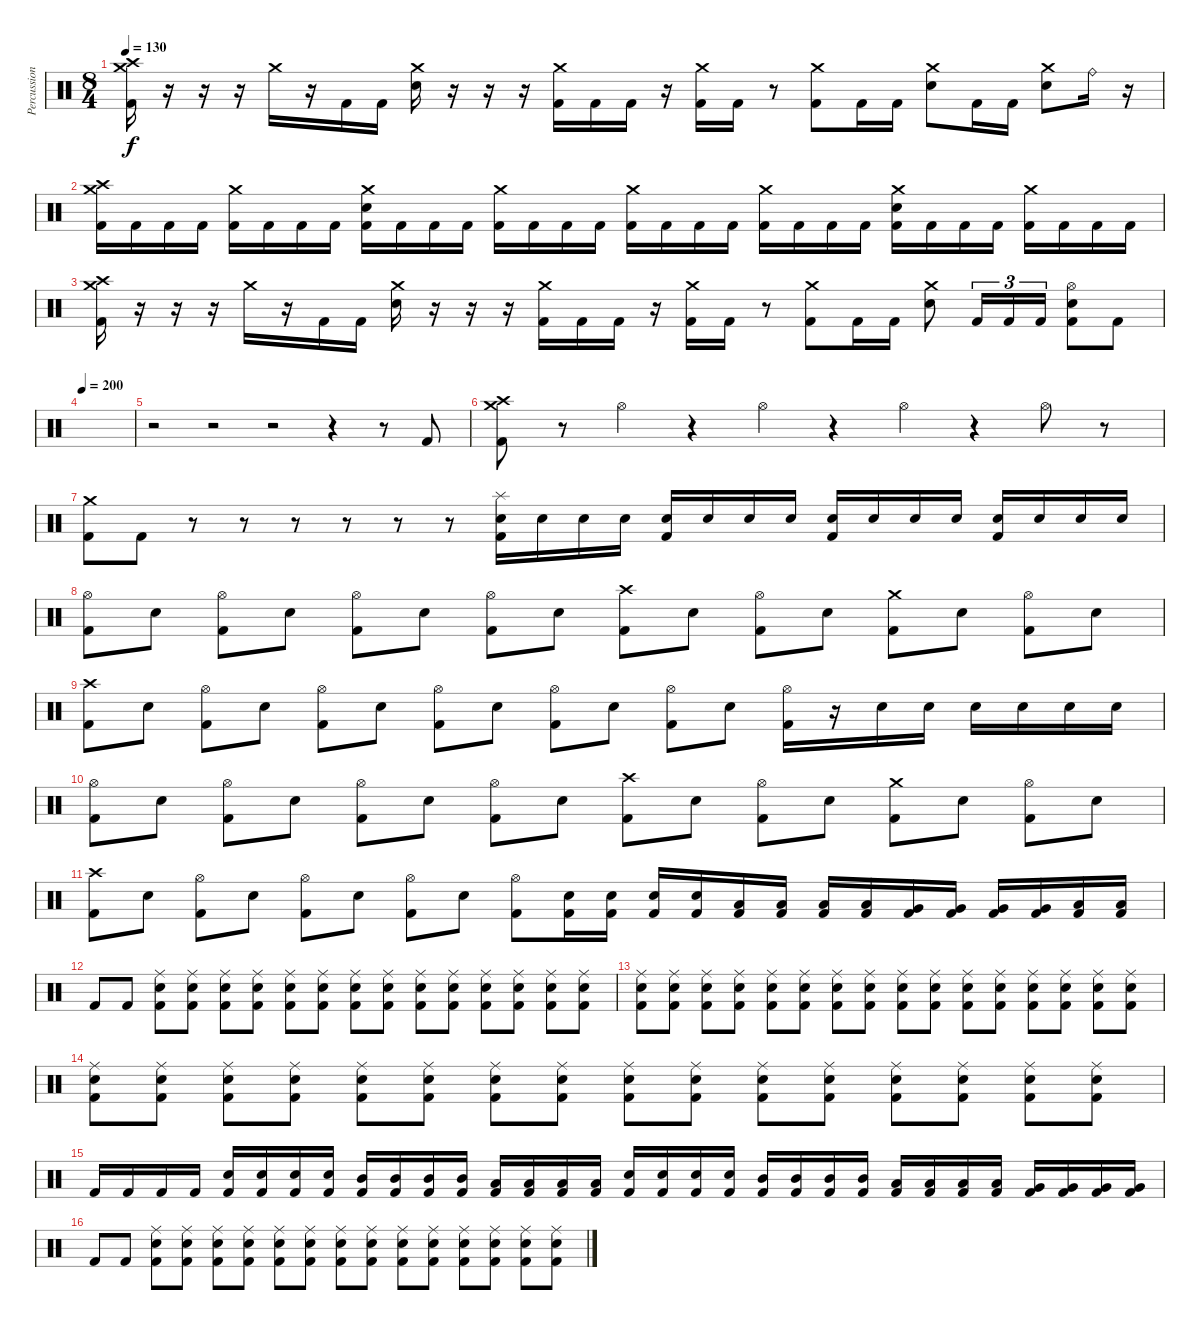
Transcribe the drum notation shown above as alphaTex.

\track ("Percussion" "Percussion") {instrument percussion}
\staff {score}
\articulation defaults
\ts (8 4)
\tempo 130
\clef neutral
\ks c
("Crash medium (hit)" "Crash high (hit)" "Kick (hit) 2").16{dy f} r.16 r.16 r.16 "Crash medium (hit)".16 r.16 "Kick (hit) 2".16 "Kick (hit) 2".16 ("Crash medium (hit)" "Electric Snare (hit)").16 r.16 r.16 r.16 ("Crash medium (hit)" "Kick (hit) 2").16 "Kick (hit) 2".16 "Kick (hit) 2".16 r.16 ("Crash medium (hit)" "Kick (hit) 2").16 "Kick (hit) 2".16 r.8 ("Crash medium (hit)" "Kick (hit) 2").8 "Kick (hit) 2".16 "Kick (hit) 2".16 ("Crash medium (hit)" "Electric Snare (hit)").8 "Kick (hit) 2".16 "Kick (hit) 2".16 ("Crash medium (hit)" "Electric Snare (hit)").8 "Ride (bell)".16 r.16 |
("Crash medium (hit)" "Crash high (hit)" "Kick (hit) 2").16 "Kick (hit) 2".16 "Kick (hit) 2".16 "Kick (hit) 2".16 ("Crash medium (hit)" "Kick (hit) 2").16 "Kick (hit) 2".16 "Kick (hit) 2".16 "Kick (hit) 2".16 ("Crash medium (hit)" "Electric Snare (hit)" "Kick (hit) 2").16 "Kick (hit) 2".16 "Kick (hit) 2".16 "Kick (hit) 2".16 ("Crash medium (hit)" "Kick (hit) 2").16 "Kick (hit) 2".16 "Kick (hit) 2".16 "Kick (hit) 2".16 ("Crash medium (hit)" "Kick (hit) 2").16 "Kick (hit) 2".16 "Kick (hit) 2".16 "Kick (hit) 2".16 ("Crash medium (hit)" "Kick (hit) 2").16 "Kick (hit) 2".16 "Kick (hit) 2".16 "Kick (hit) 2".16 ("Crash medium (hit)" "Electric Snare (hit)" "Kick (hit) 2").16 "Kick (hit) 2".16 "Kick (hit) 2".16 "Kick (hit) 2".16 ("Crash medium (hit)" "Kick (hit) 2").16 "Kick (hit) 2".16 "Kick (hit) 2".16 "Kick (hit) 2".16 |
("Crash medium (hit)" "Crash high (hit)" "Kick (hit) 2").16 r.16 r.16 r.16 "Crash medium (hit)".16 r.16 "Kick (hit) 2".16 "Kick (hit) 2".16 ("Crash medium (hit)" "Electric Snare (hit)").16 r.16 r.16 r.16 ("Crash medium (hit)" "Kick (hit) 2").16 "Kick (hit) 2".16 "Kick (hit) 2".16 r.16 ("Crash medium (hit)" "Kick (hit) 2").16 "Kick (hit) 2".16 r.8 ("Crash medium (hit)" "Kick (hit) 2").8 "Kick (hit) 2".16 "Kick (hit) 2".16 ("Crash medium (hit)" "Electric Snare (hit)").8 "Kick (hit) 2".16{tu (3 2)} "Kick (hit) 2".16{tu (3 2)} "Kick (hit) 2".16{tu (3 2)} ("Hi-Hat (open)" "Electric Snare (hit)" "Kick (hit) 2").8 "Kick (hit) 2".8 |
\tempo 200
|
r.2 r.2 r.2 r.4 r.8 "Kick (hit) 2".8 |
("Crash medium (hit)" "Crash high (hit)" "Kick (hit) 2").8 r.8 "Hi-Hat (open)".4 r.4 "Hi-Hat (open)".4 r.4 "Hi-Hat (open)".4 r.4 "Hi-Hat (open)".8 r.8 |
("Crash medium (hit)" "Kick (hit) 2").8 "Kick (hit) 2".8 r.8 r.8 r.8 r.8 r.8 r.8 ("Splash (hit)" "Electric Snare (hit)" "Kick (hit) 2").16 "Electric Snare (hit)".16 "Electric Snare (hit)".16 "Electric Snare (hit)".16 ("Electric Snare (hit)" "Kick (hit) 2").16 "Electric Snare (hit)".16 "Electric Snare (hit)".16 "Electric Snare (hit)".16 ("Electric Snare (hit)" "Kick (hit) 2").16 "Electric Snare (hit)".16 "Electric Snare (hit)".16 "Electric Snare (hit)".16 ("Electric Snare (hit)" "Kick (hit) 2").16 "Electric Snare (hit)".16 "Electric Snare (hit)".16 "Electric Snare (hit)".16 |
("Hi-Hat (open)" "Kick (hit) 2").8 "Electric Snare (hit)".8 ("Hi-Hat (open)" "Kick (hit) 2").8 "Electric Snare (hit)".8 ("Hi-Hat (open)" "Kick (hit) 2").8 "Electric Snare (hit)".8 ("Hi-Hat (open)" "Kick (hit) 2").8 "Electric Snare (hit)".8 ("Crash high (hit)" "Kick (hit) 2").8 "Electric Snare (hit)".8 ("Hi-Hat (open)" "Kick (hit) 2").8 "Electric Snare (hit)".8 ("Crash medium (hit)" "Kick (hit) 2").8 "Electric Snare (hit)".8 ("Hi-Hat (open)" "Kick (hit) 2").8 "Electric Snare (hit)".8 |
("Crash high (hit)" "Kick (hit) 2").8 "Electric Snare (hit)".8 ("Hi-Hat (open)" "Kick (hit) 2").8 "Electric Snare (hit)".8 ("Hi-Hat (open)" "Kick (hit) 2").8 "Electric Snare (hit)".8 ("Hi-Hat (open)" "Kick (hit) 2").8 "Electric Snare (hit)".8 ("Hi-Hat (open)" "Kick (hit) 2").8 "Electric Snare (hit)".8 ("Hi-Hat (open)" "Kick (hit) 2").8 "Electric Snare (hit)".8 ("Hi-Hat (open)" "Kick (hit) 2").16 r.16 "Electric Snare (hit)".16 "Electric Snare (hit)".16 "Electric Snare (hit)".16 "Electric Snare (hit)".16 "Electric Snare (hit)".16 "Electric Snare (hit)".16 |
("Hi-Hat (open)" "Kick (hit) 2").8 "Electric Snare (hit)".8 ("Hi-Hat (open)" "Kick (hit) 2").8 "Electric Snare (hit)".8 ("Hi-Hat (open)" "Kick (hit) 2").8 "Electric Snare (hit)".8 ("Hi-Hat (open)" "Kick (hit) 2").8 "Electric Snare (hit)".8 ("Crash high (hit)" "Kick (hit) 2").8 "Electric Snare (hit)".8 ("Hi-Hat (open)" "Kick (hit) 2").8 "Electric Snare (hit)".8 ("Crash medium (hit)" "Kick (hit) 2").8 "Electric Snare (hit)".8 ("Hi-Hat (open)" "Kick (hit) 2").8 "Electric Snare (hit)".8 |
("Crash high (hit)" "Kick (hit) 2").8 "Electric Snare (hit)".8 ("Hi-Hat (open)" "Kick (hit) 2").8 "Electric Snare (hit)".8 ("Hi-Hat (open)" "Kick (hit) 2").8 "Electric Snare (hit)".8 ("Hi-Hat (open)" "Kick (hit) 2").8 "Electric Snare (hit)".8 ("Hi-Hat (open)" "Kick (hit) 2").8 ("Electric Snare (hit)" "Kick (hit) 2").16 ("Electric Snare (hit)" "Kick (hit) 2").16 ("Electric Snare (hit)" "Kick (hit) 2").16 ("Electric Snare (hit)" "Kick (hit) 2").16 ("Low Tom (hit)" "Kick (hit) 2").16 ("Low Tom (hit)" "Kick (hit) 2").16 ("Low Tom (hit)" "Kick (hit) 2").16 ("Low Tom (hit)" "Kick (hit) 2").16 ("Very Low Tom (hit)" "Kick (hit) 2").16 ("Very Low Tom (hit)" "Kick (hit) 2").16 ("Very Low Tom (hit)" "Kick (hit) 2").16 ("Very Low Tom (hit)" "Kick (hit) 2").16 ("Low Floor Tom (hit)" "Kick (hit) 2").16 ("Low Floor Tom (hit)" "Kick (hit) 2").16 |
"Kick (hit) 2".8 "Kick (hit) 2".8 ("Ride (middle)" "Electric Snare (hit)" "Kick (hit) 2").8 ("Ride (middle)" "Electric Snare (hit)" "Kick (hit) 2").8 ("Ride (middle)" "Electric Snare (hit)" "Kick (hit) 2").8 ("Ride (middle)" "Electric Snare (hit)" "Kick (hit) 2").8 ("Ride (middle)" "Electric Snare (hit)" "Kick (hit) 2").8 ("Ride (middle)" "Electric Snare (hit)" "Kick (hit) 2").8 ("Ride (middle)" "Electric Snare (hit)" "Kick (hit) 2").8 ("Ride (middle)" "Electric Snare (hit)" "Kick (hit) 2").8 ("Ride (middle)" "Electric Snare (hit)" "Kick (hit) 2").8 ("Ride (middle)" "Electric Snare (hit)" "Kick (hit) 2").8 ("Ride (middle)" "Electric Snare (hit)" "Kick (hit) 2").8 ("Ride (middle)" "Electric Snare (hit)" "Kick (hit) 2").8 ("Ride (middle)" "Electric Snare (hit)" "Kick (hit) 2").8 ("Ride (middle)" "Electric Snare (hit)" "Kick (hit) 2").8 |
("Ride (middle)" "Electric Snare (hit)" "Kick (hit) 2").8 ("Ride (middle)" "Electric Snare (hit)" "Kick (hit) 2").8 ("Ride (middle)" "Electric Snare (hit)" "Kick (hit) 2").8 ("Ride (middle)" "Electric Snare (hit)" "Kick (hit) 2").8 ("Ride (middle)" "Electric Snare (hit)" "Kick (hit) 2").8 ("Ride (middle)" "Electric Snare (hit)" "Kick (hit) 2").8 ("Ride (middle)" "Electric Snare (hit)" "Kick (hit) 2").8 ("Ride (middle)" "Electric Snare (hit)" "Kick (hit) 2").8 ("Ride (middle)" "Electric Snare (hit)" "Kick (hit) 2").8 ("Ride (middle)" "Electric Snare (hit)" "Kick (hit) 2").8 ("Ride (middle)" "Electric Snare (hit)" "Kick (hit) 2").8 ("Ride (middle)" "Electric Snare (hit)" "Kick (hit) 2").8 ("Ride (middle)" "Electric Snare (hit)" "Kick (hit) 2").8 ("Ride (middle)" "Electric Snare (hit)" "Kick (hit) 2").8 ("Ride (middle)" "Electric Snare (hit)" "Kick (hit) 2").8 ("Ride (middle)" "Electric Snare (hit)" "Kick (hit) 2").8 |
("Ride (middle)" "Electric Snare (hit)" "Kick (hit) 2").8 ("Ride (middle)" "Electric Snare (hit)" "Kick (hit) 2").8 ("Ride (middle)" "Electric Snare (hit)" "Kick (hit) 2").8 ("Ride (middle)" "Electric Snare (hit)" "Kick (hit) 2").8 ("Ride (middle)" "Electric Snare (hit)" "Kick (hit) 2").8 ("Ride (middle)" "Electric Snare (hit)" "Kick (hit) 2").8 ("Ride (middle)" "Electric Snare (hit)" "Kick (hit) 2").8 ("Ride (middle)" "Electric Snare (hit)" "Kick (hit) 2").8 ("Ride (middle)" "Electric Snare (hit)" "Kick (hit) 2").8 ("Ride (middle)" "Electric Snare (hit)" "Kick (hit) 2").8 ("Ride (middle)" "Electric Snare (hit)" "Kick (hit) 2").8 ("Ride (middle)" "Electric Snare (hit)" "Kick (hit) 2").8 ("Ride (middle)" "Electric Snare (hit)" "Kick (hit) 2").8 ("Ride (middle)" "Electric Snare (hit)" "Kick (hit) 2").8 ("Ride (middle)" "Electric Snare (hit)" "Kick (hit) 2").8 ("Ride (middle)" "Electric Snare (hit)" "Kick (hit) 2").8 |
"Kick (hit) 2".16 "Kick (hit) 2".16 "Kick (hit) 2".16 "Kick (hit) 2".16 ("Electric Snare (hit)" "Kick (hit) 2").16 ("Electric Snare (hit)" "Kick (hit) 2").16 ("Electric Snare (hit)" "Kick (hit) 2").16 ("Electric Snare (hit)" "Kick (hit) 2").16 ("Mid Tom (hit)" "Kick (hit) 2").16 ("Mid Tom (hit)" "Kick (hit) 2").16 ("Mid Tom (hit)" "Kick (hit) 2").16 ("Mid Tom (hit)" "Kick (hit) 2").16 ("Low Tom (hit)" "Kick (hit) 2").16 ("Low Tom (hit)" "Kick (hit) 2").16 ("Low Tom (hit)" "Kick (hit) 2").16 ("Low Tom (hit)" "Kick (hit) 2").16 ("Electric Snare (hit)" "Kick (hit) 2").16 ("Electric Snare (hit)" "Kick (hit) 2").16 ("Electric Snare (hit)" "Kick (hit) 2").16 ("Electric Snare (hit)" "Kick (hit) 2").16 ("Mid Tom (hit)" "Kick (hit) 2").16 ("Mid Tom (hit)" "Kick (hit) 2").16 ("Mid Tom (hit)" "Kick (hit) 2").16 ("Mid Tom (hit)" "Kick (hit) 2").16 ("Low Tom (hit)" "Kick (hit) 2").16 ("Low Tom (hit)" "Kick (hit) 2").16 ("Low Tom (hit)" "Kick (hit) 2").16 ("Low Tom (hit)" "Kick (hit) 2").16 ("Very Low Tom (hit)" "Kick (hit) 2").16 ("Very Low Tom (hit)" "Kick (hit) 2").16 ("Very Low Tom (hit)" "Kick (hit) 2").16 ("Very Low Tom (hit)" "Kick (hit) 2").16 |
"Kick (hit) 2".8 "Kick (hit) 2".8 ("Ride (middle)" "Electric Snare (hit)" "Kick (hit) 2").8 ("Ride (middle)" "Electric Snare (hit)" "Kick (hit) 2").8 ("Ride (middle)" "Electric Snare (hit)" "Kick (hit) 2").8 ("Ride (middle)" "Electric Snare (hit)" "Kick (hit) 2").8 ("Ride (middle)" "Electric Snare (hit)" "Kick (hit) 2").8 ("Ride (middle)" "Electric Snare (hit)" "Kick (hit) 2").8 ("Ride (middle)" "Electric Snare (hit)" "Kick (hit) 2").8 ("Ride (middle)" "Electric Snare (hit)" "Kick (hit) 2").8 ("Ride (middle)" "Electric Snare (hit)" "Kick (hit) 2").8 ("Ride (middle)" "Electric Snare (hit)" "Kick (hit) 2").8 ("Ride (middle)" "Electric Snare (hit)" "Kick (hit) 2").8 ("Ride (middle)" "Electric Snare (hit)" "Kick (hit) 2").8 ("Ride (middle)" "Electric Snare (hit)" "Kick (hit) 2").8 ("Ride (middle)" "Electric Snare (hit)" "Kick (hit) 2").8
